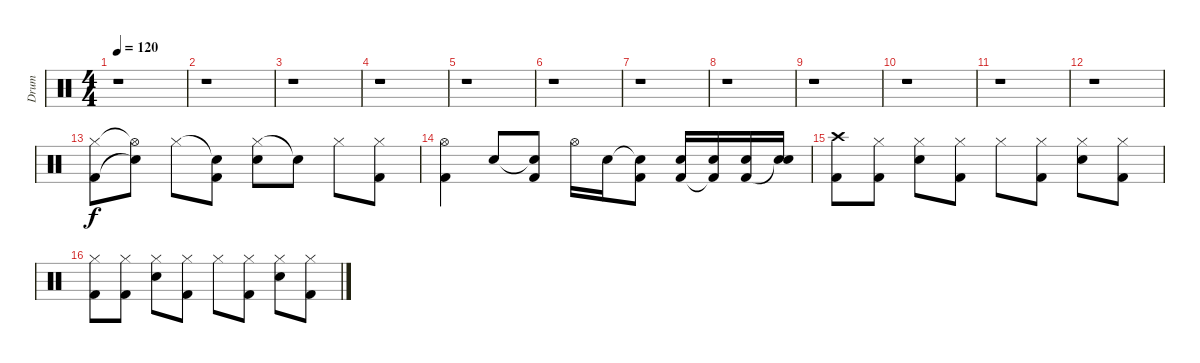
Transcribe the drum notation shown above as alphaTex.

\track ("Drum" "Drum") {instrument percussion}
\staff {score}
\articulation defaults
\ts (4 4)
\tempo 120
\clef neutral
\ks c
r.1{dy f} |
r.1 |
r.1 |
r.1 |
r.1 |
r.1 |
r.1 |
r.1 |
r.1 |
r.1 |
r.1 |
r.1 |
("Hi-Hat (closed)" "Kick (hit) 2").8 ("Hi-Hat (open)"{t} "Snare (hit)"{t}).8 "Hi-Hat (closed)".8 ("Snare (hit)"{t} "Kick (hit) 2").8 ("Hi-Hat (closed)" "Snare (hit) 2").8 "Snare (hit)"{t}.8 "Hi-Hat (closed)".8 ("Hi-Hat (closed)" "Kick (hit) 2").8 |
("Hi-Hat (open)" "Kick (hit) 2").4 "Snare (hit) 2".8 ("Snare (hit)"{t} "Kick (hit) 2").8 "Hi-Hat (open)".16 "Snare (hit) 2".16 ("Snare (hit)"{t} "Kick (hit) 2").8 ("Snare (hit) 2" "Kick (hit) 2").16 ("Snare (hit) 2" "Kick (hit) 2"{t}).16 ("Snare (hit) 2" "Kick (hit) 2").16 ("Snare (hit) 2" "Snare (hit)"{t}).16 |
("Crash high (hit)" "Kick (hit) 2").8 ("Hi-Hat (closed)" "Kick (hit) 2").8 ("Hi-Hat (closed)" "Snare (hit) 2").8 ("Hi-Hat (closed)" "Kick (hit) 2").8 "Hi-Hat (closed)".8 ("Hi-Hat (closed)" "Kick (hit) 2").8 ("Hi-Hat (closed)" "Snare (hit) 2").8 ("Hi-Hat (closed)" "Kick (hit) 2").8 |
("Hi-Hat (closed)" "Kick (hit) 2").8 ("Hi-Hat (closed)" "Kick (hit) 2").8 ("Hi-Hat (closed)" "Snare (hit) 2").8 ("Hi-Hat (closed)" "Kick (hit) 2").8 "Hi-Hat (closed)".8 ("Hi-Hat (closed)" "Kick (hit) 2").8 ("Hi-Hat (closed)" "Snare (hit) 2").8 ("Hi-Hat (closed)" "Kick (hit) 2").8
